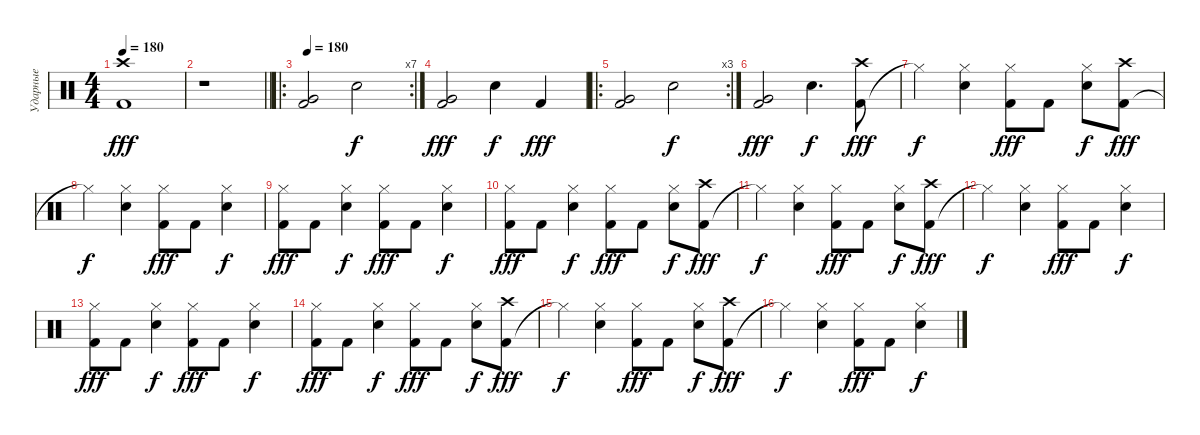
\track ("Ударные" "Ударные") {instrument percussion}
\staff
\articulation defaults
\ts (4 4)
\tempo 180
\clef neutral
\ks c
("Kick (hit) 2" "Crash high (hit)").1{dy fff} |
\barLineRight lightlight
r.1 |
\ro
\rc 7
\tempo 180
("Kick (hit) 2" "Very Low Tom (hit)").2 "Snare (hit) 2".2{dy f} |
("Kick (hit) 2" "Very Low Tom (hit)").2{dy fff} "Snare (hit) 2".4{dy f} "Kick (hit) 2".4{dy fff} |
\ro
\rc 3
("Kick (hit) 2" "Very Low Tom (hit)").2 "Snare (hit) 2".2{dy f} |
("Kick (hit) 2" "Very Low Tom (hit)").2{dy fff} "Snare (hit) 2".4{d dy f} ("Kick (hit) 2" "Crash high (hit)").8{dy fff} |
"Hi-Hat (closed)"{t}.4{dy f} ("Snare (hit) 2" "Hi-Hat (closed)").4 ("Kick (hit) 2" "Hi-Hat (closed)").8{dy fff} "Kick (hit) 2".8 ("Snare (hit) 2" "Hi-Hat (closed)").8{dy f} ("Kick (hit) 2" "Crash high (hit)").8{dy fff} |
"Hi-Hat (closed)"{t}.4{dy f} ("Snare (hit) 2" "Hi-Hat (closed)").4 ("Kick (hit) 2" "Hi-Hat (closed)").8{dy fff} "Kick (hit) 2".8 ("Snare (hit) 2" "Hi-Hat (closed)").4{dy f} |
("Kick (hit) 2" "Hi-Hat (closed)").8{dy fff} "Kick (hit) 2".8 ("Snare (hit) 2" "Hi-Hat (closed)").4{dy f} ("Kick (hit) 2" "Hi-Hat (closed)").8{dy fff} "Kick (hit) 2".8 ("Snare (hit) 2" "Hi-Hat (closed)").4{dy f} |
("Kick (hit) 2" "Hi-Hat (closed)").8{dy fff} "Kick (hit) 2".8 ("Snare (hit) 2" "Hi-Hat (closed)").4{dy f} ("Kick (hit) 2" "Hi-Hat (closed)").8{dy fff} "Kick (hit) 2".8 ("Snare (hit) 2" "Hi-Hat (closed)").8{dy f} ("Kick (hit) 2" "Crash high (hit)").8{dy fff} |
"Hi-Hat (closed)"{t}.4{dy f} ("Snare (hit) 2" "Hi-Hat (closed)").4 ("Kick (hit) 2" "Hi-Hat (closed)").8{dy fff} "Kick (hit) 2".8 ("Snare (hit) 2" "Hi-Hat (closed)").8{dy f} ("Kick (hit) 2" "Crash high (hit)").8{dy fff} |
"Hi-Hat (closed)"{t}.4{dy f} ("Snare (hit) 2" "Hi-Hat (closed)").4 ("Kick (hit) 2" "Hi-Hat (closed)").8{dy fff} "Kick (hit) 2".8 ("Snare (hit) 2" "Hi-Hat (closed)").4{dy f} |
("Kick (hit) 2" "Hi-Hat (closed)").8{dy fff} "Kick (hit) 2".8 ("Snare (hit) 2" "Hi-Hat (closed)").4{dy f} ("Kick (hit) 2" "Hi-Hat (closed)").8{dy fff} "Kick (hit) 2".8 ("Snare (hit) 2" "Hi-Hat (closed)").4{dy f} |
("Kick (hit) 2" "Hi-Hat (closed)").8{dy fff} "Kick (hit) 2".8 ("Snare (hit) 2" "Hi-Hat (closed)").4{dy f} ("Kick (hit) 2" "Hi-Hat (closed)").8{dy fff} "Kick (hit) 2".8 ("Snare (hit) 2" "Hi-Hat (closed)").8{dy f} ("Kick (hit) 2" "Crash high (hit)").8{dy fff} |
"Hi-Hat (closed)"{t}.4{dy f} ("Snare (hit) 2" "Hi-Hat (closed)").4 ("Kick (hit) 2" "Hi-Hat (closed)").8{dy fff} "Kick (hit) 2".8 ("Snare (hit) 2" "Hi-Hat (closed)").8{dy f} ("Kick (hit) 2" "Crash high (hit)").8{dy fff} |
"Hi-Hat (closed)"{t}.4{dy f} ("Snare (hit) 2" "Hi-Hat (closed)").4 ("Kick (hit) 2" "Hi-Hat (closed)").8{dy fff} "Kick (hit) 2".8 ("Snare (hit) 2" "Hi-Hat (closed)").4{dy f}
